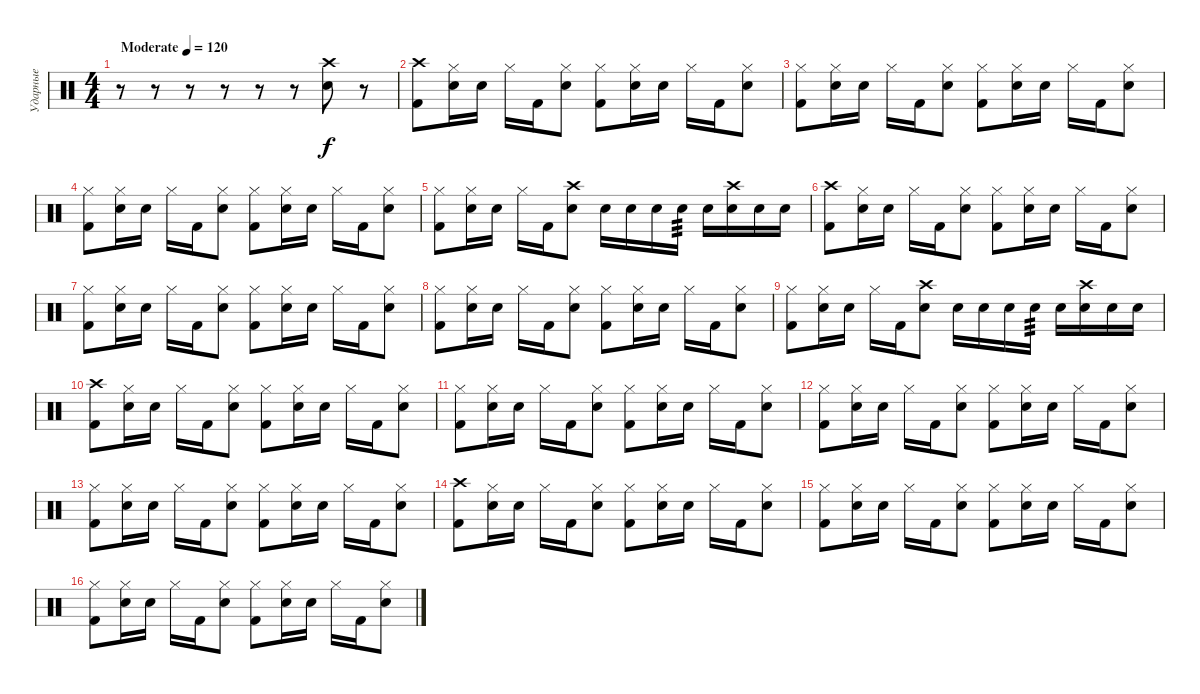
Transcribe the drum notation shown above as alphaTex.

\track ("Ударные" "Ударные") {instrument percussion}
\staff {score}
\articulation defaults
\ts (4 4)
\tempo (120 "Moderate")
\clef neutral
\ks c
r.8{dy f} r.8 r.8 r.8 r.8 r.8 ("Crash high (hit)" "Electric Snare (hit)").8 r.8 |
("Kick (hit) 2" "Crash high (hit)").8 ("Electric Snare (hit)" "Hi-Hat (closed)").16 "Electric Snare (hit)".16 "Hi-Hat (closed)".16 "Kick (hit) 2".16 ("Electric Snare (hit)" "Hi-Hat (closed)").8 ("Kick (hit) 2" "Hi-Hat (closed)").8 ("Electric Snare (hit)" "Hi-Hat (closed)").16 "Electric Snare (hit)".16 "Hi-Hat (closed)".16 "Kick (hit) 2".16 ("Electric Snare (hit)" "Hi-Hat (closed)").8 |
("Kick (hit) 2" "Hi-Hat (closed)").8 ("Electric Snare (hit)" "Hi-Hat (closed)").16 "Electric Snare (hit)".16 "Hi-Hat (closed)".16 "Kick (hit) 2".16 ("Electric Snare (hit)" "Hi-Hat (closed)").8 ("Kick (hit) 2" "Hi-Hat (closed)").8 ("Electric Snare (hit)" "Hi-Hat (closed)").16 "Electric Snare (hit)".16 "Hi-Hat (closed)".16 "Kick (hit) 2".16 ("Electric Snare (hit)" "Hi-Hat (closed)").8 |
("Kick (hit) 2" "Hi-Hat (closed)").8 ("Electric Snare (hit)" "Hi-Hat (closed)").16 "Electric Snare (hit)".16 "Hi-Hat (closed)".16 "Kick (hit) 2".16 ("Electric Snare (hit)" "Hi-Hat (closed)").8 ("Kick (hit) 2" "Hi-Hat (closed)").8 ("Electric Snare (hit)" "Hi-Hat (closed)").16 "Electric Snare (hit)".16 "Hi-Hat (closed)".16 "Kick (hit) 2".16 ("Electric Snare (hit)" "Hi-Hat (closed)").8 |
("Kick (hit) 2" "Hi-Hat (closed)").8 ("Electric Snare (hit)" "Hi-Hat (closed)").16 "Electric Snare (hit)".16 "Hi-Hat (closed)".16 "Kick (hit) 2".16 ("Electric Snare (hit)" "Crash high (hit)").8 "Electric Snare (hit)".16 "Electric Snare (hit)".16 "Electric Snare (hit)".16 "Electric Snare (hit)".16{tp 3} "Electric Snare (hit)".16 ("Electric Snare (hit)" "Crash high (hit)").16 "Electric Snare (hit)".16 "Electric Snare (hit)".16 |
("Kick (hit) 2" "Crash high (hit)").8 ("Electric Snare (hit)" "Hi-Hat (closed)").16 "Electric Snare (hit)".16 "Hi-Hat (closed)".16 "Kick (hit) 2".16 ("Electric Snare (hit)" "Hi-Hat (closed)").8 ("Kick (hit) 2" "Hi-Hat (closed)").8 ("Electric Snare (hit)" "Hi-Hat (closed)").16 "Electric Snare (hit)".16 "Hi-Hat (closed)".16 "Kick (hit) 2".16 ("Electric Snare (hit)" "Hi-Hat (closed)").8 |
("Kick (hit) 2" "Hi-Hat (closed)").8 ("Electric Snare (hit)" "Hi-Hat (closed)").16 "Electric Snare (hit)".16 "Hi-Hat (closed)".16 "Kick (hit) 2".16 ("Electric Snare (hit)" "Hi-Hat (closed)").8 ("Kick (hit) 2" "Hi-Hat (closed)").8 ("Electric Snare (hit)" "Hi-Hat (closed)").16 "Electric Snare (hit)".16 "Hi-Hat (closed)".16 "Kick (hit) 2".16 ("Electric Snare (hit)" "Hi-Hat (closed)").8 |
("Kick (hit) 2" "Hi-Hat (closed)").8 ("Electric Snare (hit)" "Hi-Hat (closed)").16 "Electric Snare (hit)".16 "Hi-Hat (closed)".16 "Kick (hit) 2".16 ("Electric Snare (hit)" "Hi-Hat (closed)").8 ("Kick (hit) 2" "Hi-Hat (closed)").8 ("Electric Snare (hit)" "Hi-Hat (closed)").16 "Electric Snare (hit)".16 "Hi-Hat (closed)".16 "Kick (hit) 2".16 ("Electric Snare (hit)" "Hi-Hat (closed)").8 |
("Kick (hit) 2" "Hi-Hat (closed)").8 ("Electric Snare (hit)" "Hi-Hat (closed)").16 "Electric Snare (hit)".16 "Hi-Hat (closed)".16 "Kick (hit) 2".16 ("Electric Snare (hit)" "Crash high (hit)").8 "Electric Snare (hit)".16 "Electric Snare (hit)".16 "Electric Snare (hit)".16 "Electric Snare (hit)".16{tp 3} "Electric Snare (hit)".16 ("Electric Snare (hit)" "Crash high (hit)").16 "Electric Snare (hit)".16 "Electric Snare (hit)".16 |
("Kick (hit) 2" "Crash high (hit)").8 ("Electric Snare (hit)" "Hi-Hat (closed)").16 "Electric Snare (hit)".16 "Hi-Hat (closed)".16 "Kick (hit) 2".16 ("Electric Snare (hit)" "Hi-Hat (closed)").8 ("Kick (hit) 2" "Hi-Hat (closed)").8 ("Electric Snare (hit)" "Hi-Hat (closed)").16 "Electric Snare (hit)".16 "Hi-Hat (closed)".16 "Kick (hit) 2".16 ("Electric Snare (hit)" "Hi-Hat (closed)").8 |
("Kick (hit) 2" "Hi-Hat (closed)").8 ("Electric Snare (hit)" "Hi-Hat (closed)").16 "Electric Snare (hit)".16 "Hi-Hat (closed)".16 "Kick (hit) 2".16 ("Electric Snare (hit)" "Hi-Hat (closed)").8 ("Kick (hit) 2" "Hi-Hat (closed)").8 ("Electric Snare (hit)" "Hi-Hat (closed)").16 "Electric Snare (hit)".16 "Hi-Hat (closed)".16 "Kick (hit) 2".16 ("Electric Snare (hit)" "Hi-Hat (closed)").8 |
("Kick (hit) 2" "Hi-Hat (closed)").8 ("Electric Snare (hit)" "Hi-Hat (closed)").16 "Electric Snare (hit)".16 "Hi-Hat (closed)".16 "Kick (hit) 2".16 ("Electric Snare (hit)" "Hi-Hat (closed)").8 ("Kick (hit) 2" "Hi-Hat (closed)").8 ("Electric Snare (hit)" "Hi-Hat (closed)").16 "Electric Snare (hit)".16 "Hi-Hat (closed)".16 "Kick (hit) 2".16 ("Electric Snare (hit)" "Hi-Hat (closed)").8 |
("Kick (hit) 2" "Hi-Hat (closed)").8 ("Electric Snare (hit)" "Hi-Hat (closed)").16 "Electric Snare (hit)".16 "Hi-Hat (closed)".16 "Kick (hit) 2".16 ("Electric Snare (hit)" "Hi-Hat (closed)").8 ("Kick (hit) 2" "Hi-Hat (closed)").8 ("Electric Snare (hit)" "Hi-Hat (closed)").16 "Electric Snare (hit)".16 "Hi-Hat (closed)".16 "Kick (hit) 2".16 ("Electric Snare (hit)" "Hi-Hat (closed)").8 |
("Kick (hit) 2" "Crash high (hit)").8 ("Electric Snare (hit)" "Hi-Hat (closed)").16 "Electric Snare (hit)".16 "Hi-Hat (closed)".16 "Kick (hit) 2".16 ("Electric Snare (hit)" "Hi-Hat (closed)").8 ("Kick (hit) 2" "Hi-Hat (closed)").8 ("Electric Snare (hit)" "Hi-Hat (closed)").16 "Electric Snare (hit)".16 "Hi-Hat (closed)".16 "Kick (hit) 2".16 ("Electric Snare (hit)" "Hi-Hat (closed)").8 |
("Kick (hit) 2" "Hi-Hat (closed)").8 ("Electric Snare (hit)" "Hi-Hat (closed)").16 "Electric Snare (hit)".16 "Hi-Hat (closed)".16 "Kick (hit) 2".16 ("Electric Snare (hit)" "Hi-Hat (closed)").8 ("Kick (hit) 2" "Hi-Hat (closed)").8 ("Electric Snare (hit)" "Hi-Hat (closed)").16 "Electric Snare (hit)".16 "Hi-Hat (closed)".16 "Kick (hit) 2".16 ("Electric Snare (hit)" "Hi-Hat (closed)").8 |
("Kick (hit) 2" "Hi-Hat (closed)").8 ("Electric Snare (hit)" "Hi-Hat (closed)").16 "Electric Snare (hit)".16 "Hi-Hat (closed)".16 "Kick (hit) 2".16 ("Electric Snare (hit)" "Hi-Hat (closed)").8 ("Kick (hit) 2" "Hi-Hat (closed)").8 ("Electric Snare (hit)" "Hi-Hat (closed)").16 "Electric Snare (hit)".16 "Hi-Hat (closed)".16 "Kick (hit) 2".16 ("Electric Snare (hit)" "Hi-Hat (closed)").8
